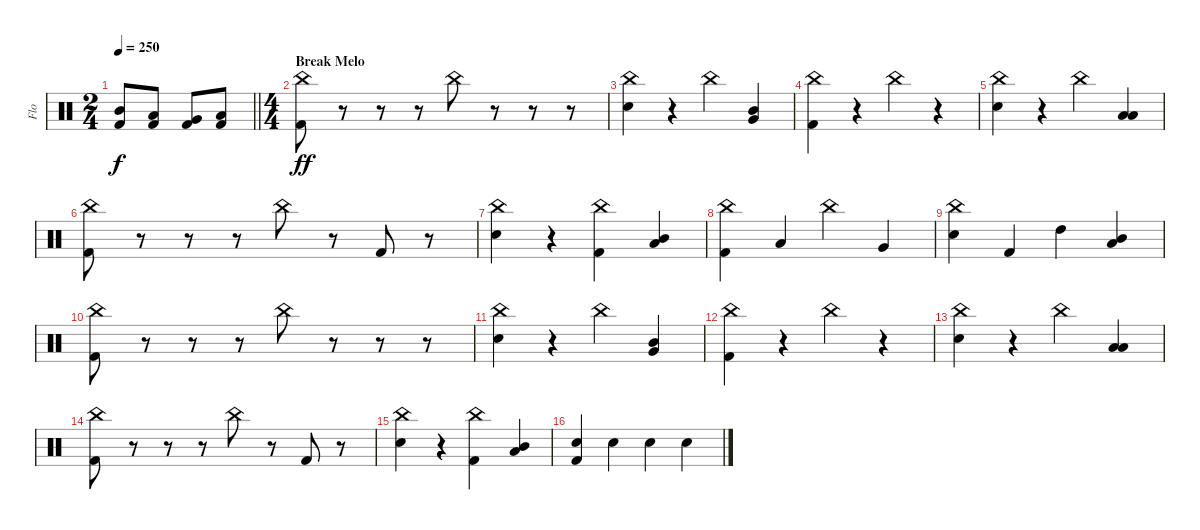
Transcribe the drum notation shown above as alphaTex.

\track ("Flo" "Flo") {instrument percussion}
\staff {score}
\articulation defaults
\ts (2 4)
\tempo 250
\clef neutral
\barLineRight lightlight
\ks c
("Mid Tom (hit)" "Kick (hit) 2").8{dy f} ("Low Tom (hit)" "Kick (hit) 2").8 ("Very Low Tom (hit)" "Kick (hit) 2").8 ("Low Floor Tom (hit)" "Kick (hit) 2").8 |
\ts (4 4)
\section ("" "Break Melo")
("China (hit)" "Kick (hit) 2").8{dy ff} r.8 r.8 r.8 "China (hit)".8 r.8 r.8 r.8 |
("China (hit)" "Electric Snare (hit)").4 r.4 "China (hit)".4 ("Mid Tom (hit)" "Very Low Tom (hit)").4 |
("China (hit)" "Kick (hit) 2").4 r.4 "China (hit)".4 r.4 |
("China (hit)" "Electric Snare (hit)").4 r.4 "China (hit)".4 ("Low Tom (hit)" "Low Floor Tom (hit)").4 |
("China (hit)" "Kick (hit) 2").8 r.8 r.8 r.8 "China (hit)".8 r.8 "Kick (hit) 2".8 r.8 |
("China (hit)" "Electric Snare (hit)").4 r.4 ("China (hit)" "Kick (hit) 2").4 ("Mid Tom (hit)" "Low Tom (hit)").4 |
("China (hit)" "Kick (hit) 2").4 "Low Tom (hit)".4 "China (hit)".4 "Very Low Tom (hit)".4 |
("China (hit)" "Electric Snare (hit)").4 "Kick (hit) 2".4 "High Tom (hit)".4 ("Mid Tom (hit)" "Low Tom (hit)").4 |
("China (hit)" "Kick (hit) 2").8 r.8 r.8 r.8 "China (hit)".8 r.8 r.8 r.8 |
("China (hit)" "Electric Snare (hit)").4 r.4 "China (hit)".4 ("Mid Tom (hit)" "Very Low Tom (hit)").4 |
("China (hit)" "Kick (hit) 2").4 r.4 "China (hit)".4 r.4 |
("China (hit)" "Electric Snare (hit)").4 r.4 "China (hit)".4 ("Low Tom (hit)" "Low Floor Tom (hit)").4 |
("China (hit)" "Kick (hit) 2").8 r.8 r.8 r.8 "China (hit)".8 r.8 "Kick (hit) 2".8 r.8 |
("China (hit)" "Electric Snare (hit)").4 r.4 ("China (hit)" "Kick (hit) 2").4 ("Mid Tom (hit)" "Low Tom (hit)").4 |
("Electric Snare (hit)" "Kick (hit) 2").4 "Electric Snare (hit)".4 "Electric Snare (hit)".4 "Electric Snare (hit)".4
